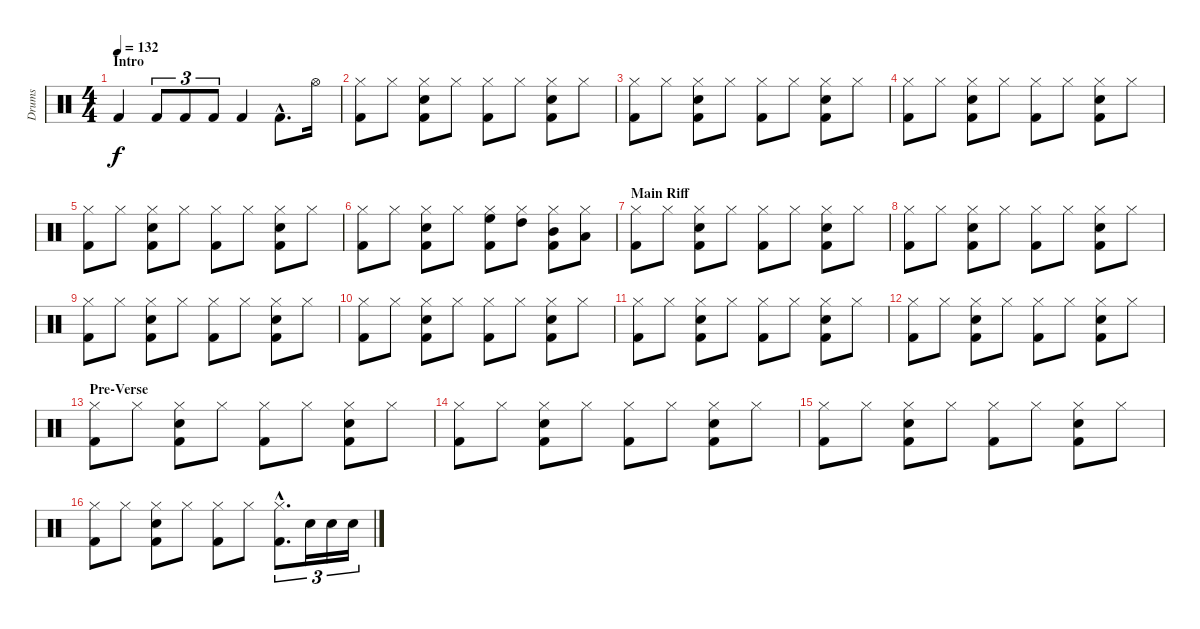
\track ("Drums" "Drums") {instrument percussion}
\staff {score}
\articulation defaults
\ts (4 4)
\section ("" "Intro")
\tempo 132
\clef neutral
\ks c "Kick (hit) 2".4{dy f} "Kick (hit) 2".8{tu (3 2)} "Kick (hit) 2".8{tu (3 2)} "Kick (hit) 2".8{tu (3 2)} "Kick (hit) 2".4 "Kick (hit) 2"{hac}.8{d} "Hi-Hat (open)".16
|
("Hi-Hat (closed)" "Kick (hit) 2").8 "Hi-Hat (closed)".8 ("Hi-Hat (closed)" "Snare (hit) 2" "Kick (hit) 2").8 "Hi-Hat (closed)".8 ("Hi-Hat (closed)" "Kick (hit) 2").8 "Hi-Hat (closed)".8 ("Hi-Hat (closed)" "Snare (hit) 2" "Kick (hit) 2").8 "Hi-Hat (closed)".8 |
("Hi-Hat (closed)" "Kick (hit) 2").8 "Hi-Hat (closed)".8 ("Hi-Hat (closed)" "Snare (hit) 2" "Kick (hit) 2").8 "Hi-Hat (closed)".8 ("Hi-Hat (closed)" "Kick (hit) 2").8 "Hi-Hat (closed)".8 ("Hi-Hat (closed)" "Snare (hit) 2" "Kick (hit) 2").8 "Hi-Hat (closed)".8 |
("Hi-Hat (closed)" "Kick (hit) 2").8 "Hi-Hat (closed)".8 ("Hi-Hat (closed)" "Snare (hit) 2" "Kick (hit) 2").8 "Hi-Hat (closed)".8 ("Hi-Hat (closed)" "Kick (hit) 2").8 "Hi-Hat (closed)".8 ("Hi-Hat (closed)" "Snare (hit) 2" "Kick (hit) 2").8 "Hi-Hat (closed)".8 |
("Hi-Hat (closed)" "Kick (hit) 2").8 "Hi-Hat (closed)".8 ("Hi-Hat (closed)" "Snare (hit) 2" "Kick (hit) 2").8 "Hi-Hat (closed)".8 ("Hi-Hat (closed)" "Kick (hit) 2").8 "Hi-Hat (closed)".8 ("Hi-Hat (closed)" "Snare (hit) 2" "Kick (hit) 2").8 "Hi-Hat (closed)".8 |
("Hi-Hat (closed)" "Kick (hit) 2").8 "Hi-Hat (closed)".8 ("Hi-Hat (closed)" "Snare (hit) 2" "Kick (hit) 2").8 "Hi-Hat (closed)".8 ("Hi-Hat (closed)" "High Floor Tom (hit)" "Kick (hit) 2").8 ("Hi-Hat (closed)" "High Tom (hit)").8 ("Hi-Hat (closed)" "Mid Tom (hit)" "Kick (hit) 2").8 ("Hi-Hat (closed)" "Low Tom (hit)").8 |
\section ("" "Main Riff")
("Hi-Hat (closed)" "Kick (hit) 2").8 "Hi-Hat (closed)".8 ("Hi-Hat (closed)" "Snare (hit) 2" "Kick (hit) 2").8 "Hi-Hat (closed)".8 ("Hi-Hat (closed)" "Kick (hit) 2").8 "Hi-Hat (closed)".8 ("Hi-Hat (closed)" "Snare (hit) 2" "Kick (hit) 2").8 "Hi-Hat (closed)".8 |
("Hi-Hat (closed)" "Kick (hit) 2").8 "Hi-Hat (closed)".8 ("Hi-Hat (closed)" "Snare (hit) 2" "Kick (hit) 2").8 "Hi-Hat (closed)".8 ("Hi-Hat (closed)" "Kick (hit) 2").8 "Hi-Hat (closed)".8 ("Hi-Hat (closed)" "Snare (hit) 2" "Kick (hit) 2").8 "Hi-Hat (closed)".8 |
("Hi-Hat (closed)" "Kick (hit) 2").8 "Hi-Hat (closed)".8 ("Hi-Hat (closed)" "Snare (hit) 2" "Kick (hit) 2").8 "Hi-Hat (closed)".8 ("Hi-Hat (closed)" "Kick (hit) 2").8 "Hi-Hat (closed)".8 ("Hi-Hat (closed)" "Snare (hit) 2" "Kick (hit) 2").8 "Hi-Hat (closed)".8 |
("Hi-Hat (closed)" "Kick (hit) 2").8 "Hi-Hat (closed)".8 ("Hi-Hat (closed)" "Snare (hit) 2" "Kick (hit) 2").8 "Hi-Hat (closed)".8 ("Hi-Hat (closed)" "Kick (hit) 2").8 "Hi-Hat (closed)".8 ("Hi-Hat (closed)" "Snare (hit) 2" "Kick (hit) 2").8 "Hi-Hat (closed)".8 |
("Hi-Hat (closed)" "Kick (hit) 2").8 "Hi-Hat (closed)".8 ("Hi-Hat (closed)" "Snare (hit) 2" "Kick (hit) 2").8 "Hi-Hat (closed)".8 ("Hi-Hat (closed)" "Kick (hit) 2").8 "Hi-Hat (closed)".8 ("Hi-Hat (closed)" "Snare (hit) 2" "Kick (hit) 2").8 "Hi-Hat (closed)".8 |
("Hi-Hat (closed)" "Kick (hit) 2").8 "Hi-Hat (closed)".8 ("Hi-Hat (closed)" "Snare (hit) 2" "Kick (hit) 2").8 "Hi-Hat (closed)".8 ("Hi-Hat (closed)" "Kick (hit) 2").8 "Hi-Hat (closed)".8 ("Hi-Hat (closed)" "Snare (hit) 2" "Kick (hit) 2").8 "Hi-Hat (closed)".8 |
\section ("" "Pre-Verse")
("Hi-Hat (closed)" "Kick (hit) 2").8 "Hi-Hat (closed)".8 ("Hi-Hat (closed)" "Snare (hit) 2" "Kick (hit) 2").8 "Hi-Hat (closed)".8 ("Hi-Hat (closed)" "Kick (hit) 2").8 "Hi-Hat (closed)".8 ("Hi-Hat (closed)" "Snare (hit) 2" "Kick (hit) 2").8 "Hi-Hat (closed)".8 |
("Hi-Hat (closed)" "Kick (hit) 2").8 "Hi-Hat (closed)".8 ("Hi-Hat (closed)" "Snare (hit) 2" "Kick (hit) 2").8 "Hi-Hat (closed)".8 ("Hi-Hat (closed)" "Kick (hit) 2").8 "Hi-Hat (closed)".8 ("Hi-Hat (closed)" "Snare (hit) 2" "Kick (hit) 2").8 "Hi-Hat (closed)".8 |
("Hi-Hat (closed)" "Kick (hit) 2").8 "Hi-Hat (closed)".8 ("Hi-Hat (closed)" "Snare (hit) 2" "Kick (hit) 2").8 "Hi-Hat (closed)".8 ("Hi-Hat (closed)" "Kick (hit) 2").8 "Hi-Hat (closed)".8 ("Hi-Hat (closed)" "Snare (hit) 2" "Kick (hit) 2").8 "Hi-Hat (closed)".8 |
("Hi-Hat (closed)" "Kick (hit) 2").8 "Hi-Hat (closed)".8 ("Hi-Hat (closed)" "Snare (hit) 2" "Kick (hit) 2").8 "Hi-Hat (closed)".8 ("Hi-Hat (closed)" "Kick (hit) 2").8 "Hi-Hat (closed)".8 ("Hi-Hat (closed)"{hac} "Kick (hit) 2"{hac}).8{d tu (3 2)} "Snare (hit) 2".16{tu (3 2)} "Snare (hit) 2".16{tu (3 2)} "Snare (hit) 2".16{tu (3 2)}
